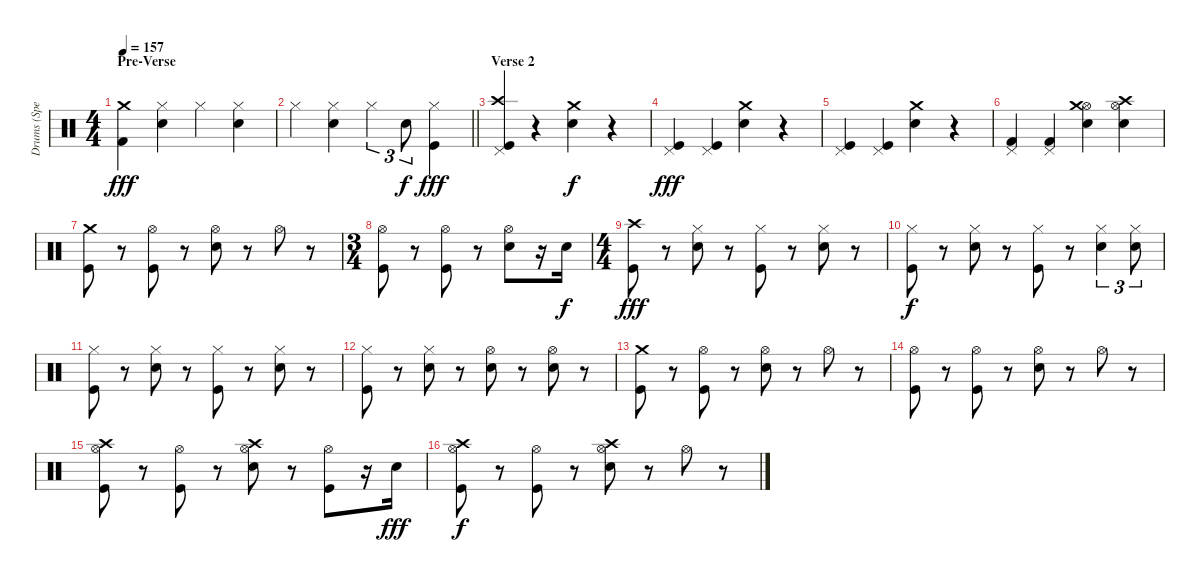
\track ("Drums (Spencer Smith)" "Drums (Spe") {instrument percussion}
\staff {score}
\articulation defaults
\ts (4 4)
\section ("" "Pre-Verse")
\tempo 157
\clef neutral
\ks c
("Crash medium (hit)" "Kick (hit) 2").4{dy fff} ("Hi-Hat (closed)" "Electric Snare (hit)").4 "Hi-Hat (closed)".4 ("Hi-Hat (closed)" "Electric Snare (hit)").4 |
\barLineRight lightlight "Hi-Hat (closed)".4
("Hi-Hat (closed)" "Electric Snare (hit)").4 "Hi-Hat (closed)".4{tu (3 2)} "Electric Snare (hit)".8{tu (3 2) dy f} ("Hi-Hat (closed)" "Kick (hit)").4{dy fff} |
\section ("" "Verse 2")
("Crash high (hit)" "Kick (hit)" "Pedal Hi-Hat (hit)").4 r.4 ("Crash medium (hit)" "Electric Snare (hit)").4{dy f} r.4 |
("Kick (hit)" "Pedal Hi-Hat (hit)").4{dy fff} ("Kick (hit)" "Pedal Hi-Hat (hit)").4 ("Crash medium (hit)" "Electric Snare (hit)").4 r.4 |
("Kick (hit)" "Pedal Hi-Hat (hit)").4 ("Kick (hit)" "Pedal Hi-Hat (hit)").4 ("Crash medium (hit)" "Electric Snare (hit)").4 r.4 |
("Kick (hit) 2" "Pedal Hi-Hat (hit)").4 ("Kick (hit) 2" "Pedal Hi-Hat (hit)").4 ("Hi-Hat (open)" "Crash medium (hit)" "Electric Snare (hit)").4 ("Hi-Hat (open)" "Crash high (hit)" "Electric Snare (hit)").4 |
("Crash medium (hit)" "Kick (hit)").8 r.8 ("Hi-Hat (open)" "Kick (hit)").8 r.8 ("Hi-Hat (open)" "Electric Snare (hit)").8 r.8 "Hi-Hat (open)".8 r.8 |
\ts (3 4)
("Hi-Hat (open)" "Kick (hit)").8 r.8 ("Hi-Hat (open)" "Kick (hit)").8 r.8 ("Hi-Hat (open)" "Electric Snare (hit)").8 r.16 "Electric Snare (hit)".16{dy f} |
\ts (4 4)
("Crash high (hit)" "Kick (hit)").8{dy fff} r.8 ("Hi-Hat (closed)" "Electric Snare (hit)").8 r.8 ("Hi-Hat (closed)" "Kick (hit)").8 r.8 ("Hi-Hat (closed)" "Electric Snare (hit)").8 r.8 |
("Hi-Hat (closed)" "Kick (hit)").8{dy f} r.8 ("Hi-Hat (closed)" "Electric Snare (hit)").8 r.8 ("Hi-Hat (closed)" "Kick (hit)").8 r.8 ("Hi-Hat (closed)" "Electric Snare (hit)").4{tu (3 2)} ("Hi-Hat (closed)" "Electric Snare (hit)").8{tu (3 2)} |
("Hi-Hat (closed)" "Kick (hit)").8 r.8 ("Hi-Hat (closed)" "Electric Snare (hit)").8 r.8 ("Hi-Hat (closed)" "Kick (hit)").8 r.8 ("Hi-Hat (closed)" "Electric Snare (hit)").8 r.8 |
("Hi-Hat (closed)" "Kick (hit)").8 r.8 ("Hi-Hat (closed)" "Electric Snare (hit)").8 r.8 ("Hi-Hat (open)" "Electric Snare (hit)").8 r.8 ("Hi-Hat (open)" "Electric Snare (hit)").8 r.8 |
("Crash medium (hit)" "Kick (hit)").8 r.8 ("Hi-Hat (open)" "Kick (hit)").8 r.8 ("Hi-Hat (open)" "Electric Snare (hit)").8 r.8 "Hi-Hat (open)".8 r.8 |
("Hi-Hat (open)" "Kick (hit)").8 r.8 ("Hi-Hat (open)" "Kick (hit)").8 r.8 ("Hi-Hat (open)" "Electric Snare (hit)").8 r.8 "Hi-Hat (open)".8 r.8 |
("Hi-Hat (open)" "Crash high (hit)" "Kick (hit)").8 r.8 ("Hi-Hat (open)" "Kick (hit)").8 r.8 ("Hi-Hat (open)" "Crash high (hit)" "Electric Snare (hit)").8 r.8 ("Hi-Hat (open)" "Kick (hit)").8 r.16 "Electric Snare (hit)".16{dy fff} |
("Hi-Hat (open)" "Crash high (hit)" "Kick (hit)").8{dy f} r.8 ("Hi-Hat (open)" "Kick (hit)").8 r.8 ("Hi-Hat (open)" "Crash high (hit)" "Electric Snare (hit)").8 r.8 "Hi-Hat (open)".8 r.8
